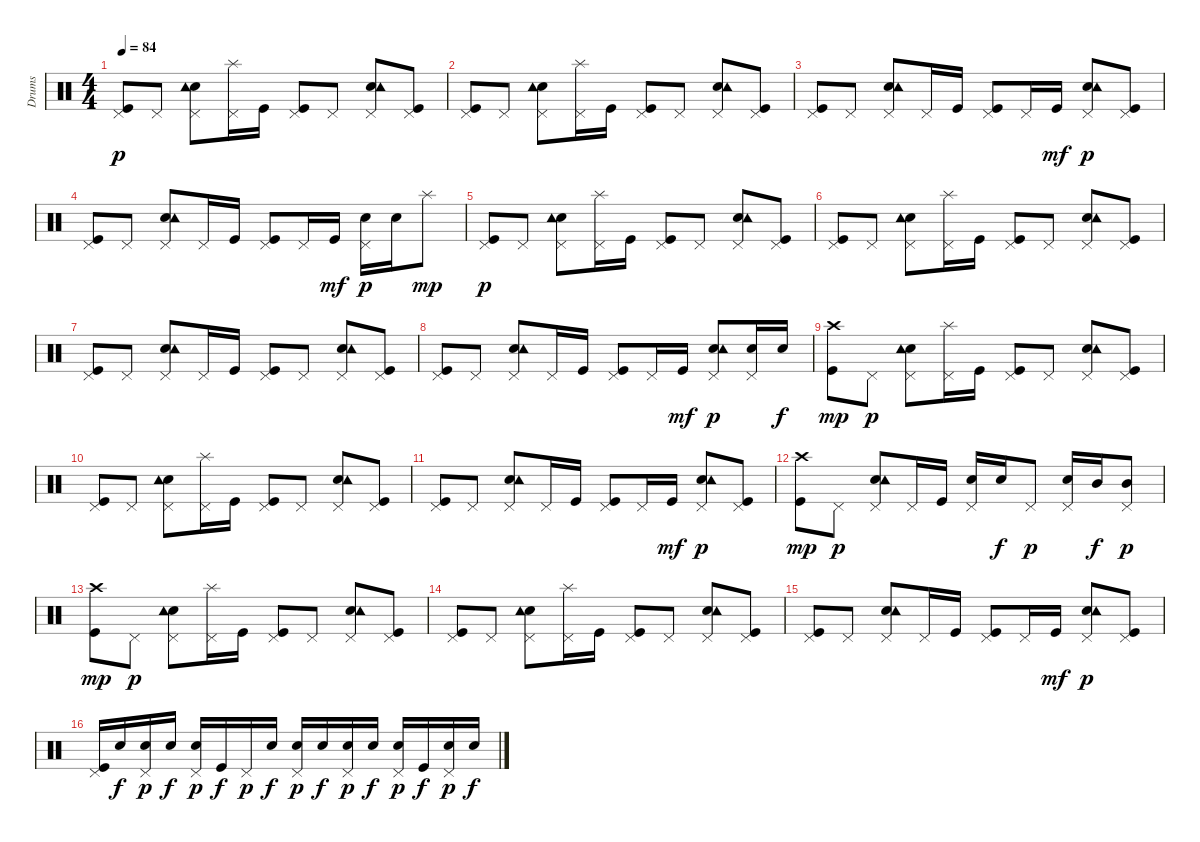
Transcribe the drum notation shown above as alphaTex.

\track ("Drums" "Drums") {instrument percussion}
\staff {score}
\articulation defaults
\ts (4 4)
\tempo 84
\clef neutral
\ks c
("Kick (hit)" "Pedal Hi-Hat (hit)").8{dy p} "Pedal Hi-Hat (hit)".8 ("Electric Snare (hit)" "Pedal Hi-Hat (hit)" "Tambourine (hit)").8 ("Pedal Hi-Hat (hit)" "Splash (hit)").16 "Kick (hit)".16 ("Kick (hit)" "Pedal Hi-Hat (hit)").8 "Pedal Hi-Hat (hit)".8 ("Electric Snare (hit)" "Pedal Hi-Hat (hit)" "Tambourine (hit)").8 ("Kick (hit)" "Pedal Hi-Hat (hit)").8 |
("Kick (hit)" "Pedal Hi-Hat (hit)").8 "Pedal Hi-Hat (hit)".8 ("Electric Snare (hit)" "Pedal Hi-Hat (hit)" "Tambourine (hit)").8 ("Pedal Hi-Hat (hit)" "Splash (hit)").16 "Kick (hit)".16 ("Kick (hit)" "Pedal Hi-Hat (hit)").8 "Pedal Hi-Hat (hit)".8 ("Electric Snare (hit)" "Pedal Hi-Hat (hit)" "Tambourine (hit)").8 ("Kick (hit)" "Pedal Hi-Hat (hit)").8 |
("Kick (hit)" "Pedal Hi-Hat (hit)").8 "Pedal Hi-Hat (hit)".8 ("Electric Snare (hit)" "Pedal Hi-Hat (hit)" "Tambourine (hit)").8 "Pedal Hi-Hat (hit)".16 "Kick (hit)".16 ("Kick (hit)" "Pedal Hi-Hat (hit)").8 "Pedal Hi-Hat (hit)".16 "Kick (hit)".16{dy mf} ("Electric Snare (hit)" "Pedal Hi-Hat (hit)" "Tambourine (hit)").8{dy p} ("Kick (hit)" "Pedal Hi-Hat (hit)").8 |
("Kick (hit)" "Pedal Hi-Hat (hit)").8 "Pedal Hi-Hat (hit)".8 ("Electric Snare (hit)" "Pedal Hi-Hat (hit)" "Tambourine (hit)").8 "Pedal Hi-Hat (hit)".16 "Kick (hit)".16 ("Kick (hit)" "Pedal Hi-Hat (hit)").8 "Pedal Hi-Hat (hit)".16 "Kick (hit)".16{dy mf} ("Electric Snare (hit)" "Pedal Hi-Hat (hit)").16{dy p} "Electric Snare (hit)".16 "Splash (hit)".8{dy mp} |
("Kick (hit)" "Pedal Hi-Hat (hit)").8{dy p} "Pedal Hi-Hat (hit)".8 ("Electric Snare (hit)" "Pedal Hi-Hat (hit)" "Tambourine (hit)").8 ("Pedal Hi-Hat (hit)" "Splash (hit)").16 "Kick (hit)".16 ("Kick (hit)" "Pedal Hi-Hat (hit)").8 "Pedal Hi-Hat (hit)".8 ("Electric Snare (hit)" "Pedal Hi-Hat (hit)" "Tambourine (hit)").8 ("Kick (hit)" "Pedal Hi-Hat (hit)").8 |
("Kick (hit)" "Pedal Hi-Hat (hit)").8 "Pedal Hi-Hat (hit)".8 ("Electric Snare (hit)" "Pedal Hi-Hat (hit)" "Tambourine (hit)").8 ("Pedal Hi-Hat (hit)" "Splash (hit)").16 "Kick (hit)".16 ("Kick (hit)" "Pedal Hi-Hat (hit)").8 "Pedal Hi-Hat (hit)".8 ("Electric Snare (hit)" "Pedal Hi-Hat (hit)" "Tambourine (hit)").8 ("Kick (hit)" "Pedal Hi-Hat (hit)").8 |
("Kick (hit)" "Pedal Hi-Hat (hit)").8 "Pedal Hi-Hat (hit)".8 ("Electric Snare (hit)" "Pedal Hi-Hat (hit)" "Tambourine (hit)").8 "Pedal Hi-Hat (hit)".16 "Kick (hit)".16 ("Kick (hit)" "Pedal Hi-Hat (hit)").8 "Pedal Hi-Hat (hit)".8 ("Electric Snare (hit)" "Pedal Hi-Hat (hit)" "Tambourine (hit)").8 ("Kick (hit)" "Pedal Hi-Hat (hit)").8 |
("Kick (hit)" "Pedal Hi-Hat (hit)").8 "Pedal Hi-Hat (hit)".8 ("Electric Snare (hit)" "Pedal Hi-Hat (hit)" "Tambourine (hit)").8 "Pedal Hi-Hat (hit)".16 "Kick (hit)".16 ("Kick (hit)" "Pedal Hi-Hat (hit)").8 "Pedal Hi-Hat (hit)".16 "Kick (hit)".16{dy mf} ("Electric Snare (hit)" "Pedal Hi-Hat (hit)" "Tambourine (hit)").8{dy p} ("Electric Snare (hit)" "Pedal Hi-Hat (hit)").16 "Electric Snare (hit)".16{dy f} |
("Kick (hit)" "Crash high (hit)").8{dy mp} "Pedal Hi-Hat (hit)".8{dy p} ("Electric Snare (hit)" "Pedal Hi-Hat (hit)" "Tambourine (hit)").8 ("Pedal Hi-Hat (hit)" "Splash (hit)").16 "Kick (hit)".16 ("Kick (hit)" "Pedal Hi-Hat (hit)").8 "Pedal Hi-Hat (hit)".8 ("Electric Snare (hit)" "Pedal Hi-Hat (hit)" "Tambourine (hit)").8 ("Kick (hit)" "Pedal Hi-Hat (hit)").8 |
("Kick (hit)" "Pedal Hi-Hat (hit)").8 "Pedal Hi-Hat (hit)".8 ("Electric Snare (hit)" "Pedal Hi-Hat (hit)" "Tambourine (hit)").8 ("Pedal Hi-Hat (hit)" "Splash (hit)").16 "Kick (hit)".16 ("Kick (hit)" "Pedal Hi-Hat (hit)").8 "Pedal Hi-Hat (hit)".8 ("Electric Snare (hit)" "Pedal Hi-Hat (hit)" "Tambourine (hit)").8 ("Kick (hit)" "Pedal Hi-Hat (hit)").8 |
("Kick (hit)" "Pedal Hi-Hat (hit)").8 "Pedal Hi-Hat (hit)".8 ("Electric Snare (hit)" "Pedal Hi-Hat (hit)" "Tambourine (hit)").8 "Pedal Hi-Hat (hit)".16 "Kick (hit)".16 ("Kick (hit)" "Pedal Hi-Hat (hit)").8 "Pedal Hi-Hat (hit)".16 "Kick (hit)".16{dy mf} ("Electric Snare (hit)" "Pedal Hi-Hat (hit)" "Tambourine (hit)").8{dy p} ("Kick (hit)" "Pedal Hi-Hat (hit)").8 |
("Kick (hit)" "Crash high (hit)").8{dy mp volume 1} "Pedal Hi-Hat (hit)".8{dy p} ("Electric Snare (hit)" "Pedal Hi-Hat (hit)" "Tambourine (hit)").8 "Pedal Hi-Hat (hit)".16 "Kick (hit)".16 ("Electric Snare (hit)" "Pedal Hi-Hat (hit)").16 "Electric Snare (hit)".16{dy f} "Pedal Hi-Hat (hit)".8{dy p} ("Electric Snare (hit)" "Pedal Hi-Hat (hit)").16 "Mid Tom (hit)".16{dy f} ("Mid Tom (hit)" "Pedal Hi-Hat (hit)").8{dy p} |
("Kick (hit)" "Crash high (hit)").8{dy mp} "Pedal Hi-Hat (hit)".8{dy p} ("Electric Snare (hit)" "Pedal Hi-Hat (hit)" "Tambourine (hit)").8 ("Pedal Hi-Hat (hit)" "Splash (hit)").16 "Kick (hit)".16 ("Kick (hit)" "Pedal Hi-Hat (hit)").8 "Pedal Hi-Hat (hit)".8 ("Electric Snare (hit)" "Pedal Hi-Hat (hit)" "Tambourine (hit)").8 ("Kick (hit)" "Pedal Hi-Hat (hit)").8 |
("Kick (hit)" "Pedal Hi-Hat (hit)").8 "Pedal Hi-Hat (hit)".8 ("Electric Snare (hit)" "Pedal Hi-Hat (hit)" "Tambourine (hit)").8 ("Pedal Hi-Hat (hit)" "Splash (hit)").16 "Kick (hit)".16 ("Kick (hit)" "Pedal Hi-Hat (hit)").8 "Pedal Hi-Hat (hit)".8 ("Electric Snare (hit)" "Pedal Hi-Hat (hit)" "Tambourine (hit)").8 ("Kick (hit)" "Pedal Hi-Hat (hit)").8 |
("Kick (hit)" "Pedal Hi-Hat (hit)").8 "Pedal Hi-Hat (hit)".8 ("Electric Snare (hit)" "Pedal Hi-Hat (hit)" "Tambourine (hit)").8 "Pedal Hi-Hat (hit)".16 "Kick (hit)".16 ("Kick (hit)" "Pedal Hi-Hat (hit)").8 "Pedal Hi-Hat (hit)".16 "Kick (hit)".16{dy mf} ("Electric Snare (hit)" "Pedal Hi-Hat (hit)" "Tambourine (hit)").8{dy p} ("Kick (hit)" "Pedal Hi-Hat (hit)").8 |
("Kick (hit)" "Pedal Hi-Hat (hit)").16{volume 0} "Electric Snare (hit)".16{dy f} ("Electric Snare (hit)" "Pedal Hi-Hat (hit)").16{dy p} "Electric Snare (hit)".16{dy f} ("Electric Snare (hit)" "Pedal Hi-Hat (hit)").16{dy p} "Kick (hit)".16{dy f} "Pedal Hi-Hat (hit)".16{dy p} "Electric Snare (hit)".16{dy f} ("Electric Snare (hit)" "Pedal Hi-Hat (hit)").16{dy p} "Electric Snare (hit)".16{dy f} ("Electric Snare (hit)" "Pedal Hi-Hat (hit)").16{dy p} "Electric Snare (hit)".16{dy f} ("Electric Snare (hit)" "Pedal Hi-Hat (hit)").16{dy p} "Kick (hit)".16{dy f} ("Electric Snare (hit)" "Pedal Hi-Hat (hit)").16{dy p} "Electric Snare (hit)".16{dy f}
